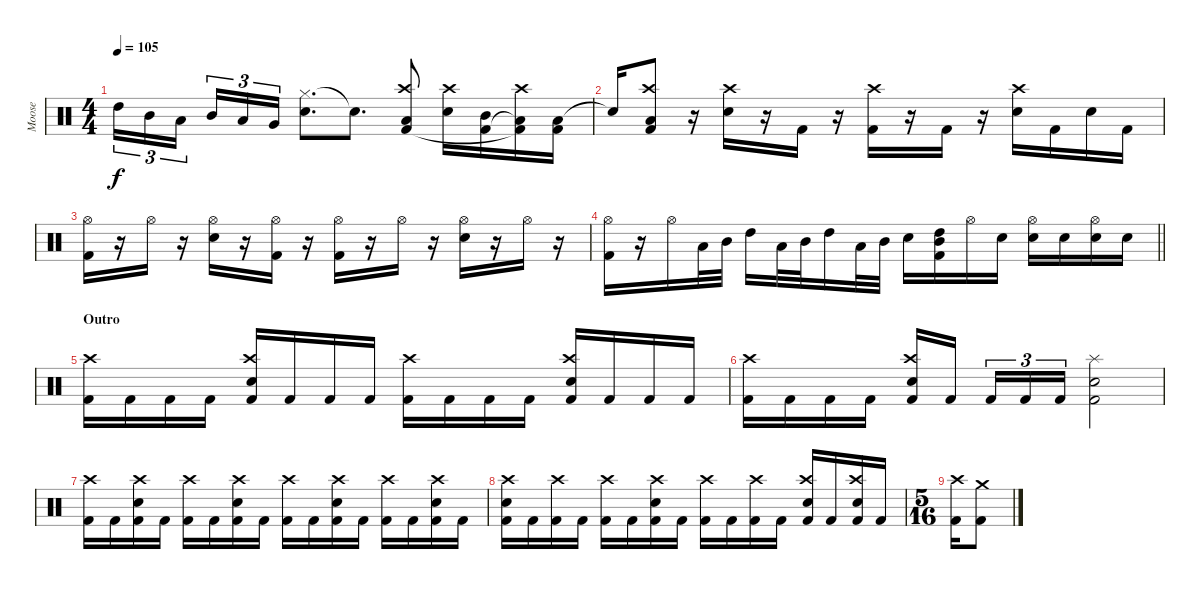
\track ("Moose" "Moose") {instrument percussion}
\staff {score}
\articulation defaults
\ts (4 4)
\tempo 105
\clef neutral
\ks c "High Tom (hit)".16{tu (3 2) dy f} "Mid Tom (hit)".16{tu (3 2)} "Low Tom (hit)".16{tu (3 2) beam splitsecondary} "Mid Tom (hit)".16{tu (3 2)} "Low Tom (hit)".16{tu (3 2)} "Very Low Tom (hit)".16{tu (3 2)}
("Hi-Hat (closed)" "Electric Snare (hit)").8{d} "Snare (hit)"{t}.8{d} ("Crash high (hit)" "Low Tom (hit)" "Kick (hit) 2").8 ("Crash high (hit)" "Electric Snare (hit)").16 ("Mid Tom (hit)" "Kick (hit) 2").16 ("Crash high (hit)" "Low Tom (hit)"{t} "Kick (hit) 2"{t}).16 ("Low Tom (hit)" "Kick (hit) 2").16 |
"Snare (hit)"{t}.16 ("Crash high (hit)" "Low Tom (hit)" "Kick (hit) 2").8 r.16 ("Crash high (hit)" "Electric Snare (hit)").16 r.16 "Kick (hit) 2".16 r.16 ("Crash high (hit)" "Kick (hit) 2").16 r.16 "Kick (hit) 2".16 r.16 ("Crash high (hit)" "Electric Snare (hit)").16 "Kick (hit) 2".16 "Electric Snare (hit)".16 "Kick (hit) 2".16 |
("Hi-Hat (open)" "Kick (hit) 2").16 r.16 "Hi-Hat (open)".16 r.16 ("Hi-Hat (open)" "Electric Snare (hit)").16 r.16 ("Hi-Hat (open)" "Kick (hit) 2").16 r.16 ("Hi-Hat (open)" "Kick (hit) 2").16 r.16 "Hi-Hat (open)".16 r.16 ("Hi-Hat (open)" "Electric Snare (hit)").16 r.16 "Hi-Hat (open)".16 r.16 |
\barLineRight lightlight
("Hi-Hat (open)" "Kick (hit) 2").16 r.16 "Hi-Hat (open)".16 "Low Tom (hit)".32 "Mid Tom (hit)".32 "High Tom (hit)".16 "Low Tom (hit)".32 "Mid Tom (hit)".32 "High Tom (hit)".16 "Low Tom (hit)".32 "Mid Tom (hit)".32 "Electric Snare (hit)".16 ("Mid Tom (hit)" "High Tom (hit)" "Kick (hit) 2").16 "Hi-Hat (open)".16 "Electric Snare (hit)".16 ("Hi-Hat (open)" "Electric Snare (hit)").16 "Electric Snare (hit)".16 ("Hi-Hat (open)" "Electric Snare (hit)").16 "Electric Snare (hit)".16 |
\section ("" "Outro")
("Crash high (hit)" "Kick (hit) 2").16 "Kick (hit) 2".16 "Kick (hit) 2".16 "Kick (hit) 2".16 ("Crash high (hit)" "Electric Snare (hit)" "Kick (hit) 2").16 "Kick (hit) 2".16 "Kick (hit) 2".16 "Kick (hit) 2".16 ("Crash high (hit)" "Kick (hit) 2").16 "Kick (hit) 2".16 "Kick (hit) 2".16 "Kick (hit) 2".16 ("Crash high (hit)" "Electric Snare (hit)" "Kick (hit) 2").16 "Kick (hit) 2".16 "Kick (hit) 2".16 "Kick (hit) 2".16 |
("Crash high (hit)" "Kick (hit) 2").16 "Kick (hit) 2".16 "Kick (hit) 2".16 "Kick (hit) 2".16 ("Crash high (hit)" "Electric Snare (hit)" "Kick (hit) 2").16 "Kick (hit) 2".16{beam splitsecondary} "Kick (hit) 2".16{tu (3 2)} "Kick (hit) 2".16{tu (3 2)} "Kick (hit) 2".16{tu (3 2)} ("Splash (hit)" "Electric Snare (hit)" "Kick (hit) 2").2 |
("Crash high (hit)" "Kick (hit) 2").16 "Kick (hit) 2".16 ("Crash high (hit)" "Electric Snare (hit)" "Kick (hit) 2").16 "Kick (hit) 2".16 ("Crash high (hit)" "Kick (hit) 2").16 "Kick (hit) 2".16 ("Crash high (hit)" "Electric Snare (hit)" "Kick (hit) 2").16 "Kick (hit) 2".16 ("Crash high (hit)" "Kick (hit) 2").16 "Kick (hit) 2".16 ("Crash high (hit)" "Electric Snare (hit)" "Kick (hit) 2").16 "Kick (hit) 2".16 ("Crash high (hit)" "Kick (hit) 2").16 "Kick (hit) 2".16 ("Crash high (hit)" "Electric Snare (hit)" "Kick (hit) 2").16 "Kick (hit) 2".16 |
("Crash high (hit)" "Electric Snare (hit)" "Kick (hit) 2").16 "Kick (hit) 2".16 ("Crash high (hit)" "Kick (hit) 2").16 "Kick (hit) 2".16 ("Crash high (hit)" "Kick (hit) 2").16 "Kick (hit) 2".16 ("Crash high (hit)" "Electric Snare (hit)" "Kick (hit) 2").16 "Kick (hit) 2".16 ("Crash high (hit)" "Kick (hit) 2").16 "Kick (hit) 2".16 ("Crash high (hit)" "Kick (hit) 2").16 "Kick (hit) 2".16 ("Crash high (hit)" "Electric Snare (hit)" "Kick (hit) 2").16 "Kick (hit) 2".16 ("Crash high (hit)" "Electric Snare (hit)" "Kick (hit) 2").16 "Kick (hit) 2".16 |
\ts (5 16)
("Crash high (hit)" "Kick (hit) 2").16 ("Crash medium (hit)" "Kick (hit) 2").8
